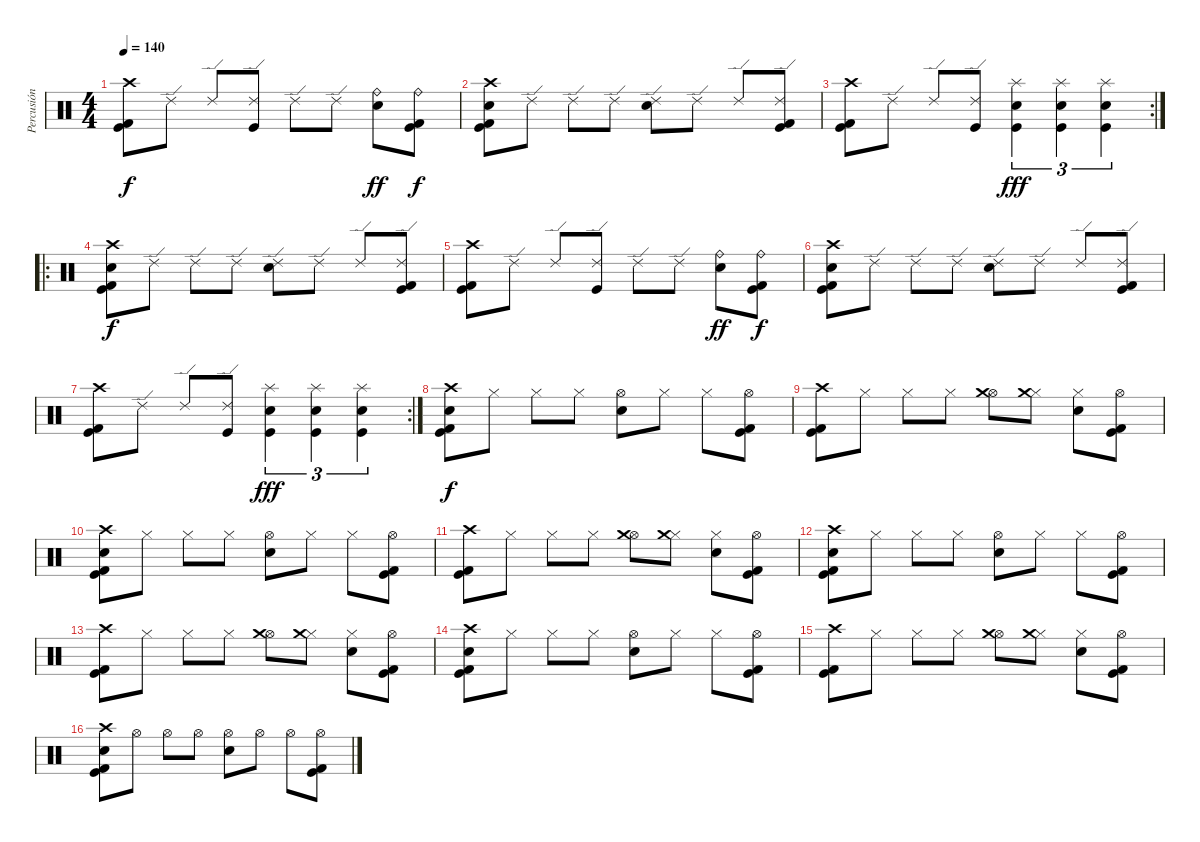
\track ("Percusión" "Percusión") {instrument percussion}
\staff {score}
\articulation defaults
\ts (4 4)
\tempo 140
\clef neutral
\ks c
("Crash high (hit)" "Kick (hit)" "Kick (hit) 2").8{dy f} "Ride (edge) 2".8 "Ride (edge) 2".8 ("Ride (edge) 2" "Kick (hit)").8 "Ride (edge) 2".8 "Ride (edge) 2".8 ("Ride (bell)" "Electric Snare (hit)").8{dy ff} ("Ride (bell)" "Kick (hit) 2" "Kick (hit)").8{dy f} |
("Crash high (hit)" "Electric Snare (hit)" "Kick (hit)" "Kick (hit) 2").8 "Ride (edge) 2".8 "Ride (edge) 2".8 "Ride (edge) 2".8 ("Ride (edge) 2" "Electric Snare (hit)").8 "Ride (edge) 2".8 "Ride (edge) 2".8 ("Ride (edge) 2" "Kick (hit) 2" "Kick (hit)").8 |
\rc 2
("Crash high (hit)" "Kick (hit)" "Kick (hit) 2").8 "Ride (edge) 2".8 "Ride (edge) 2".8 ("Ride (edge) 2" "Kick (hit)").8 ("Splash (hit)" "Electric Snare (hit)" "Kick (hit)").4{tu (3 2) dy fff} ("Splash (hit)" "Electric Snare (hit)" "Kick (hit)").4{tu (3 2)} ("Splash (hit)" "Electric Snare (hit)" "Kick (hit)").4{tu (3 2)} |
\ro
("Crash high (hit)" "Electric Snare (hit)" "Kick (hit)" "Kick (hit) 2").8{dy f} "Ride (edge) 2".8 "Ride (edge) 2".8 "Ride (edge) 2".8 ("Ride (edge) 2" "Electric Snare (hit)").8 "Ride (edge) 2".8 "Ride (edge) 2".8 ("Ride (edge) 2" "Kick (hit) 2" "Kick (hit)").8 |
("Crash high (hit)" "Kick (hit)" "Kick (hit) 2").8 "Ride (edge) 2".8 "Ride (edge) 2".8 ("Ride (edge) 2" "Kick (hit)").8 "Ride (edge) 2".8 "Ride (edge) 2".8 ("Ride (bell)" "Electric Snare (hit)").8{dy ff} ("Ride (bell)" "Kick (hit) 2" "Kick (hit)").8{dy f} |
("Crash high (hit)" "Electric Snare (hit)" "Kick (hit)" "Kick (hit) 2").8 "Ride (edge) 2".8 "Ride (edge) 2".8 "Ride (edge) 2".8 ("Ride (edge) 2" "Electric Snare (hit)").8 "Ride (edge) 2".8 "Ride (edge) 2".8 ("Ride (edge) 2" "Kick (hit) 2" "Kick (hit)").8 |
\rc 2
("Crash high (hit)" "Kick (hit)" "Kick (hit) 2").8 "Ride (edge) 2".8 "Ride (edge) 2".8 ("Ride (edge) 2" "Kick (hit)").8 ("Splash (hit)" "Electric Snare (hit)" "Kick (hit)").4{tu (3 2) dy fff} ("Splash (hit)" "Electric Snare (hit)" "Kick (hit)").4{tu (3 2)} ("Splash (hit)" "Electric Snare (hit)" "Kick (hit)").4{tu (3 2)} |
("Crash high (hit)" "Electric Snare (hit)" "Kick (hit)" "Kick (hit) 2").8{dy f} "Hi-Hat (closed)".8 "Hi-Hat (closed)".8 "Hi-Hat (closed)".8 ("Hi-Hat (open)" "Electric Snare (hit)").8 "Hi-Hat (closed)".8 "Hi-Hat (closed)".8 ("Hi-Hat (open)" "Kick (hit) 2" "Kick (hit)").8 |
("Crash high (hit)" "Kick (hit)" "Kick (hit) 2").8 "Hi-Hat (closed)".8 "Hi-Hat (closed)".8 "Hi-Hat (closed)".8 ("Hi-Hat (open)" "Crash medium (hit)").8 ("Hi-Hat (closed)" "Crash medium (hit)").8 ("Hi-Hat (closed)" "Electric Snare (hit)").8 ("Hi-Hat (open)" "Kick (hit) 2" "Kick (hit)").8 |
("Crash high (hit)" "Electric Snare (hit)" "Kick (hit)" "Kick (hit) 2").8 "Hi-Hat (closed)".8 "Hi-Hat (closed)".8 "Hi-Hat (closed)".8 ("Hi-Hat (open)" "Electric Snare (hit)").8 "Hi-Hat (closed)".8 "Hi-Hat (closed)".8 ("Hi-Hat (open)" "Kick (hit) 2" "Kick (hit)").8 |
("Crash high (hit)" "Kick (hit)" "Kick (hit) 2").8 "Hi-Hat (closed)".8 "Hi-Hat (closed)".8 "Hi-Hat (closed)".8 ("Hi-Hat (open)" "Crash medium (hit)").8 ("Hi-Hat (closed)" "Crash medium (hit)").8 ("Hi-Hat (closed)" "Electric Snare (hit)").8 ("Hi-Hat (open)" "Kick (hit) 2" "Kick (hit)").8 |
("Crash high (hit)" "Electric Snare (hit)" "Kick (hit)" "Kick (hit) 2").8 "Hi-Hat (closed)".8 "Hi-Hat (closed)".8 "Hi-Hat (closed)".8 ("Hi-Hat (open)" "Electric Snare (hit)").8 "Hi-Hat (closed)".8 "Hi-Hat (closed)".8 ("Hi-Hat (open)" "Kick (hit) 2" "Kick (hit)").8 |
("Crash high (hit)" "Kick (hit)" "Kick (hit) 2").8 "Hi-Hat (closed)".8 "Hi-Hat (closed)".8 "Hi-Hat (closed)".8 ("Hi-Hat (open)" "Crash medium (hit)").8 ("Hi-Hat (closed)" "Crash medium (hit)").8 ("Hi-Hat (closed)" "Electric Snare (hit)").8 ("Hi-Hat (open)" "Kick (hit) 2" "Kick (hit)").8 |
("Crash high (hit)" "Electric Snare (hit)" "Kick (hit)" "Kick (hit) 2").8 "Hi-Hat (closed)".8 "Hi-Hat (closed)".8 "Hi-Hat (closed)".8 ("Hi-Hat (open)" "Electric Snare (hit)").8 "Hi-Hat (closed)".8 "Hi-Hat (closed)".8 ("Hi-Hat (open)" "Kick (hit) 2" "Kick (hit)").8 |
("Crash high (hit)" "Kick (hit)" "Kick (hit) 2").8 "Hi-Hat (closed)".8 "Hi-Hat (closed)".8 "Hi-Hat (closed)".8 ("Hi-Hat (open)" "Crash medium (hit)").8 ("Hi-Hat (closed)" "Crash medium (hit)").8 ("Hi-Hat (closed)" "Electric Snare (hit)").8 ("Hi-Hat (open)" "Kick (hit) 2" "Kick (hit)").8 |
("Crash high (hit)" "Electric Snare (hit)" "Kick (hit)" "Kick (hit) 2").8 "Hi-Hat (open)".8 "Hi-Hat (open)".8 "Hi-Hat (open)".8 ("Hi-Hat (open)" "Electric Snare (hit)").8 "Hi-Hat (open)".8 "Hi-Hat (open)".8 ("Hi-Hat (open)" "Kick (hit) 2" "Kick (hit)").8
